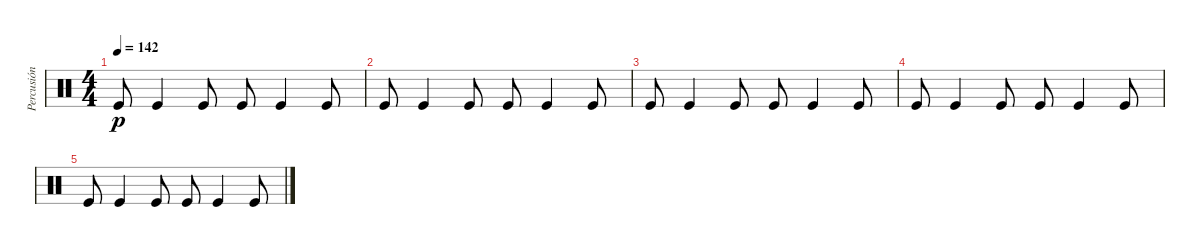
\track ("Percusión" "Percusión") {instrument percussion}
\staff {score}
\articulation defaults
\ts (4 4)
\tempo 142
\clef neutral
\ks c "Kick (hit)".8{dy p} "Kick (hit)".4 "Kick (hit)".8 "Kick (hit)".8 "Kick (hit)".4 "Kick (hit)".8
|
"Kick (hit)".8{volume 0} "Kick (hit)".4 "Kick (hit)".8 "Kick (hit)".8 "Kick (hit)".4 "Kick (hit)".8 |
"Kick (hit)".8 "Kick (hit)".4 "Kick (hit)".8 "Kick (hit)".8 "Kick (hit)".4 "Kick (hit)".8 |
"Kick (hit)".8 "Kick (hit)".4 "Kick (hit)".8 "Kick (hit)".8 "Kick (hit)".4 "Kick (hit)".8 |
"Kick (hit)".8 "Kick (hit)".4 "Kick (hit)".8 "Kick (hit)".8 "Kick (hit)".4 "Kick (hit)".8
